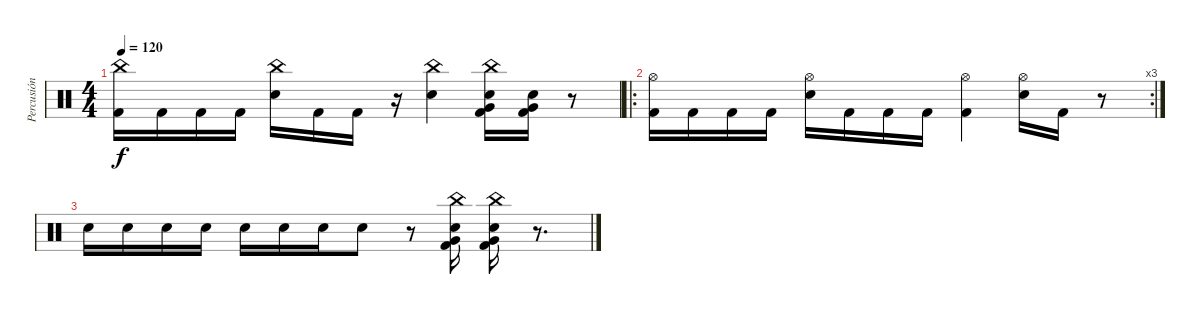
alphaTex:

\track ("Percusión" "Percusión") {instrument percussion}
\staff {score}
\articulation defaults
\ts (4 4)
\tempo 120
\clef neutral
\ks c
("China (hit)" "Kick (hit) 2").16{dy f} "Kick (hit) 2".16 "Kick (hit) 2".16 "Kick (hit) 2".16 ("China (hit)" "Electric Snare (hit)").16 "Kick (hit) 2".16 "Kick (hit) 2".16 r.16 ("China (hit)" "Electric Snare (hit)").4 ("China (hit)" "Electric Snare (hit)" "Very Low Tom (hit)" "Kick (hit) 2").16 ("Electric Snare (hit)" "Very Low Tom (hit)" "Kick (hit) 2").16 r.8 |
\ro
\rc 3
("Hi-Hat (open)" "Kick (hit) 2").16 "Kick (hit) 2".16 "Kick (hit) 2".16 "Kick (hit) 2".16 ("Hi-Hat (open)" "Electric Snare (hit)").16 "Kick (hit) 2".16 "Kick (hit) 2".16 "Kick (hit) 2".16 ("Hi-Hat (open)" "Kick (hit) 2").4 ("Hi-Hat (open)" "Electric Snare (hit)").16 "Kick (hit) 2".16 r.8 |
"Electric Snare (hit)".16 "Electric Snare (hit)".16 "Electric Snare (hit)".16 "Electric Snare (hit)".16 "Electric Snare (hit)".16 "Electric Snare (hit)".16 "Electric Snare (hit)".16 "Electric Snare (hit)".8 r.8 ("Very Low Tom (hit)" "China (hit)" "Electric Snare (hit)" "Kick (hit) 2").16 ("Very Low Tom (hit)" "China (hit)" "Electric Snare (hit)" "Kick (hit) 2").16 r.8{d}
